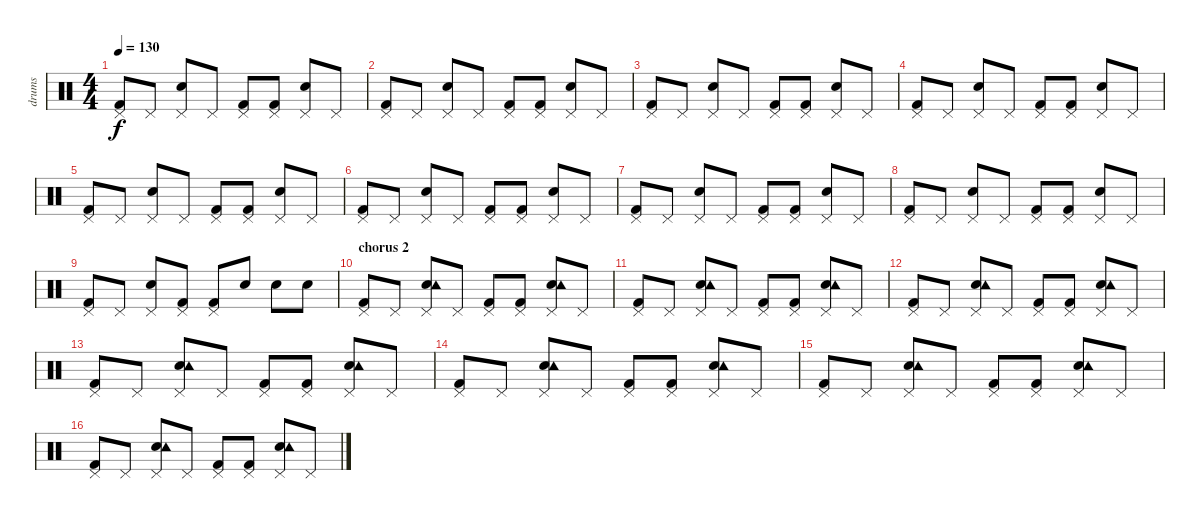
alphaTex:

\track ("drums" "drums") {instrument percussion}
\staff {score}
\articulation defaults
\ts (4 4)
\tempo 130
\clef neutral
\ks c
("Kick (hit) 2" "Pedal Hi-Hat (hit)").8{dy f} "Pedal Hi-Hat (hit)".8 ("Snare (hit) 2" "Pedal Hi-Hat (hit)").8 "Pedal Hi-Hat (hit)".8 ("Kick (hit) 2" "Pedal Hi-Hat (hit)").8 ("Kick (hit) 2" "Pedal Hi-Hat (hit)").8 ("Snare (hit) 2" "Pedal Hi-Hat (hit)").8 "Pedal Hi-Hat (hit)".8 |
("Kick (hit) 2" "Pedal Hi-Hat (hit)").8 "Pedal Hi-Hat (hit)".8 ("Snare (hit) 2" "Pedal Hi-Hat (hit)").8 "Pedal Hi-Hat (hit)".8 ("Kick (hit) 2" "Pedal Hi-Hat (hit)").8 ("Kick (hit) 2" "Pedal Hi-Hat (hit)").8 ("Snare (hit) 2" "Pedal Hi-Hat (hit)").8 "Pedal Hi-Hat (hit)".8 |
("Kick (hit) 2" "Pedal Hi-Hat (hit)").8 "Pedal Hi-Hat (hit)".8 ("Snare (hit) 2" "Pedal Hi-Hat (hit)").8 "Pedal Hi-Hat (hit)".8 ("Kick (hit) 2" "Pedal Hi-Hat (hit)").8 ("Kick (hit) 2" "Pedal Hi-Hat (hit)").8 ("Snare (hit) 2" "Pedal Hi-Hat (hit)").8 "Pedal Hi-Hat (hit)".8 |
("Kick (hit) 2" "Pedal Hi-Hat (hit)").8 "Pedal Hi-Hat (hit)".8 ("Snare (hit) 2" "Pedal Hi-Hat (hit)").8 "Pedal Hi-Hat (hit)".8 ("Kick (hit) 2" "Pedal Hi-Hat (hit)").8 ("Kick (hit) 2" "Pedal Hi-Hat (hit)").8 ("Snare (hit) 2" "Pedal Hi-Hat (hit)").8 "Pedal Hi-Hat (hit)".8 |
("Kick (hit) 2" "Pedal Hi-Hat (hit)").8 "Pedal Hi-Hat (hit)".8 ("Snare (hit) 2" "Pedal Hi-Hat (hit)").8 "Pedal Hi-Hat (hit)".8 ("Kick (hit) 2" "Pedal Hi-Hat (hit)").8 ("Kick (hit) 2" "Pedal Hi-Hat (hit)").8 ("Snare (hit) 2" "Pedal Hi-Hat (hit)").8 "Pedal Hi-Hat (hit)".8 |
("Kick (hit) 2" "Pedal Hi-Hat (hit)").8 "Pedal Hi-Hat (hit)".8 ("Snare (hit) 2" "Pedal Hi-Hat (hit)").8 "Pedal Hi-Hat (hit)".8 ("Kick (hit) 2" "Pedal Hi-Hat (hit)").8 ("Kick (hit) 2" "Pedal Hi-Hat (hit)").8 ("Snare (hit) 2" "Pedal Hi-Hat (hit)").8 "Pedal Hi-Hat (hit)".8 |
("Kick (hit) 2" "Pedal Hi-Hat (hit)").8 "Pedal Hi-Hat (hit)".8 ("Snare (hit) 2" "Pedal Hi-Hat (hit)").8 "Pedal Hi-Hat (hit)".8 ("Kick (hit) 2" "Pedal Hi-Hat (hit)").8 ("Kick (hit) 2" "Pedal Hi-Hat (hit)").8 ("Snare (hit) 2" "Pedal Hi-Hat (hit)").8 "Pedal Hi-Hat (hit)".8 |
("Kick (hit) 2" "Pedal Hi-Hat (hit)").8 "Pedal Hi-Hat (hit)".8 ("Snare (hit) 2" "Pedal Hi-Hat (hit)").8 "Pedal Hi-Hat (hit)".8 ("Kick (hit) 2" "Pedal Hi-Hat (hit)").8 ("Kick (hit) 2" "Pedal Hi-Hat (hit)").8 ("Snare (hit) 2" "Pedal Hi-Hat (hit)").8 "Pedal Hi-Hat (hit)".8 |
("Kick (hit) 2" "Pedal Hi-Hat (hit)").8 "Pedal Hi-Hat (hit)".8 ("Snare (hit) 2" "Pedal Hi-Hat (hit)").8 ("Kick (hit) 2" "Pedal Hi-Hat (hit)").8 ("Kick (hit) 2" "Pedal Hi-Hat (hit)").8 "Snare (hit) 2"{tr (38 16)}.8 "Snare (hit) 2"{tr (38 16)}.8 "Snare (hit) 2"{tr (38 16)}.8 |
\section ("" "chorus 2")
("Kick (hit) 2" "Pedal Hi-Hat (hit)").8 "Pedal Hi-Hat (hit)".8 ("Snare (hit) 2" "Tambourine (hit)" "Pedal Hi-Hat (hit)").8 "Pedal Hi-Hat (hit)".8 ("Kick (hit) 2" "Pedal Hi-Hat (hit)").8 ("Kick (hit) 2" "Pedal Hi-Hat (hit)").8 ("Snare (hit) 2" "Tambourine (hit)" "Pedal Hi-Hat (hit)").8 "Pedal Hi-Hat (hit)".8 |
("Kick (hit) 2" "Pedal Hi-Hat (hit)").8 "Pedal Hi-Hat (hit)".8 ("Snare (hit) 2" "Tambourine (hit)" "Pedal Hi-Hat (hit)").8 "Pedal Hi-Hat (hit)".8 ("Kick (hit) 2" "Pedal Hi-Hat (hit)").8 ("Kick (hit) 2" "Pedal Hi-Hat (hit)").8 ("Snare (hit) 2" "Tambourine (hit)" "Pedal Hi-Hat (hit)").8 "Pedal Hi-Hat (hit)".8 |
("Kick (hit) 2" "Pedal Hi-Hat (hit)").8 "Pedal Hi-Hat (hit)".8 ("Snare (hit) 2" "Tambourine (hit)" "Pedal Hi-Hat (hit)").8 "Pedal Hi-Hat (hit)".8 ("Kick (hit) 2" "Pedal Hi-Hat (hit)").8 ("Kick (hit) 2" "Pedal Hi-Hat (hit)").8 ("Snare (hit) 2" "Tambourine (hit)" "Pedal Hi-Hat (hit)").8 "Pedal Hi-Hat (hit)".8 |
("Kick (hit) 2" "Pedal Hi-Hat (hit)").8 "Pedal Hi-Hat (hit)".8 ("Snare (hit) 2" "Tambourine (hit)" "Pedal Hi-Hat (hit)").8 "Pedal Hi-Hat (hit)".8 ("Kick (hit) 2" "Pedal Hi-Hat (hit)").8 ("Kick (hit) 2" "Pedal Hi-Hat (hit)").8 ("Snare (hit) 2" "Tambourine (hit)" "Pedal Hi-Hat (hit)").8 "Pedal Hi-Hat (hit)".8 |
("Kick (hit) 2" "Pedal Hi-Hat (hit)").8 "Pedal Hi-Hat (hit)".8 ("Snare (hit) 2" "Tambourine (hit)" "Pedal Hi-Hat (hit)").8 "Pedal Hi-Hat (hit)".8 ("Kick (hit) 2" "Pedal Hi-Hat (hit)").8 ("Kick (hit) 2" "Pedal Hi-Hat (hit)").8 ("Snare (hit) 2" "Tambourine (hit)" "Pedal Hi-Hat (hit)").8 "Pedal Hi-Hat (hit)".8 |
("Kick (hit) 2" "Pedal Hi-Hat (hit)").8 "Pedal Hi-Hat (hit)".8 ("Snare (hit) 2" "Tambourine (hit)" "Pedal Hi-Hat (hit)").8 "Pedal Hi-Hat (hit)".8 ("Kick (hit) 2" "Pedal Hi-Hat (hit)").8 ("Kick (hit) 2" "Pedal Hi-Hat (hit)").8 ("Snare (hit) 2" "Tambourine (hit)" "Pedal Hi-Hat (hit)").8 "Pedal Hi-Hat (hit)".8 |
("Kick (hit) 2" "Pedal Hi-Hat (hit)").8 "Pedal Hi-Hat (hit)".8 ("Snare (hit) 2" "Tambourine (hit)" "Pedal Hi-Hat (hit)").8 "Pedal Hi-Hat (hit)".8 ("Kick (hit) 2" "Pedal Hi-Hat (hit)").8 ("Kick (hit) 2" "Pedal Hi-Hat (hit)").8 ("Snare (hit) 2" "Tambourine (hit)" "Pedal Hi-Hat (hit)").8 "Pedal Hi-Hat (hit)".8
